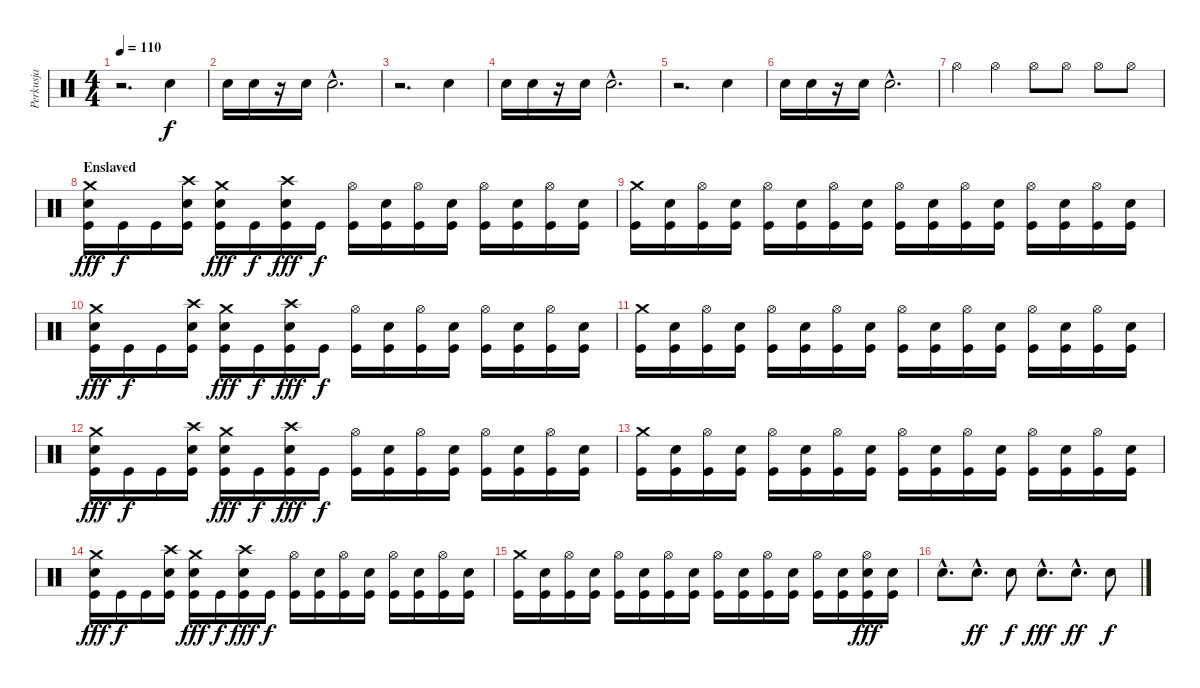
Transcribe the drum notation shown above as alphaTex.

\track ("Perkusja" "Perkusja") {instrument percussion}
\staff {score}
\articulation defaults
\ts (4 4)
\tempo 110
\clef neutral
\ks c
r.2{d dy f} "Snare (hit) 2".4 |
"Snare (hit) 2".16 "Snare (hit) 2".16 r.16 "Snare (hit) 2".16 "Snare (hit) 2"{hac}.2{d} |
r.2{d} "Snare (hit) 2".4 |
"Snare (hit) 2".16 "Snare (hit) 2".16 r.16 "Snare (hit) 2".16 "Snare (hit) 2"{hac}.2{d} |
r.2{d} "Snare (hit) 2".4 |
"Snare (hit) 2".16 "Snare (hit) 2".16 r.16 "Snare (hit) 2".16 "Snare (hit) 2"{hac}.2{d} |
"Hi-Hat (open)".4 "Hi-Hat (open)".4 "Hi-Hat (open)".8 "Hi-Hat (open)".8 "Hi-Hat (open)".8 "Hi-Hat (open)".8 |
\section ("" "Enslaved")
("Crash medium (hit)" "Snare (hit) 2" "Kick (hit)").16{dy fff} "Kick (hit)".16{dy f} "Kick (hit)".16 ("Crash high (hit)" "Snare (hit) 2" "Kick (hit)").16 ("Crash medium (hit)" "Snare (hit) 2" "Kick (hit)").16{dy fff} "Kick (hit)".16{dy f} ("Crash high (hit)" "Snare (hit) 2" "Kick (hit)").16{dy fff} "Kick (hit)".16{dy f} ("Hi-Hat (open)" "Kick (hit)").16 ("Snare (hit) 2" "Kick (hit)").16 ("Hi-Hat (open)" "Kick (hit)").16 ("Snare (hit) 2" "Kick (hit)").16 ("Hi-Hat (open)" "Kick (hit)").16 ("Snare (hit) 2" "Kick (hit)").16 ("Hi-Hat (open)" "Kick (hit)").16 ("Snare (hit) 2" "Kick (hit)").16 |
("Crash medium (hit)" "Kick (hit)").16 ("Snare (hit) 2" "Kick (hit)").16 ("Hi-Hat (open)" "Kick (hit)").16 ("Snare (hit) 2" "Kick (hit)").16 ("Hi-Hat (open)" "Kick (hit)").16 ("Snare (hit) 2" "Kick (hit)").16 ("Hi-Hat (open)" "Kick (hit)").16 ("Snare (hit) 2" "Kick (hit)").16 ("Hi-Hat (open)" "Kick (hit)").16 ("Snare (hit) 2" "Kick (hit)").16 ("Hi-Hat (open)" "Kick (hit)").16 ("Snare (hit) 2" "Kick (hit)").16 ("Hi-Hat (open)" "Kick (hit)").16 ("Snare (hit) 2" "Kick (hit)").16 ("Hi-Hat (open)" "Kick (hit)").16 ("Snare (hit) 2" "Kick (hit)").16 |
("Crash medium (hit)" "Snare (hit) 2" "Kick (hit)").16{dy fff} "Kick (hit)".16{dy f} "Kick (hit)".16 ("Crash high (hit)" "Snare (hit) 2" "Kick (hit)").16 ("Crash medium (hit)" "Snare (hit) 2" "Kick (hit)").16{dy fff} "Kick (hit)".16{dy f} ("Crash high (hit)" "Snare (hit) 2" "Kick (hit)").16{dy fff} "Kick (hit)".16{dy f} ("Hi-Hat (open)" "Kick (hit)").16 ("Snare (hit) 2" "Kick (hit)").16 ("Hi-Hat (open)" "Kick (hit)").16 ("Snare (hit) 2" "Kick (hit)").16 ("Hi-Hat (open)" "Kick (hit)").16 ("Snare (hit) 2" "Kick (hit)").16 ("Hi-Hat (open)" "Kick (hit)").16 ("Snare (hit) 2" "Kick (hit)").16 |
("Crash medium (hit)" "Kick (hit)").16 ("Snare (hit) 2" "Kick (hit)").16 ("Hi-Hat (open)" "Kick (hit)").16 ("Snare (hit) 2" "Kick (hit)").16 ("Hi-Hat (open)" "Kick (hit)").16 ("Snare (hit) 2" "Kick (hit)").16 ("Hi-Hat (open)" "Kick (hit)").16 ("Snare (hit) 2" "Kick (hit)").16 ("Hi-Hat (open)" "Kick (hit)").16 ("Snare (hit) 2" "Kick (hit)").16 ("Hi-Hat (open)" "Kick (hit)").16 ("Snare (hit) 2" "Kick (hit)").16 ("Hi-Hat (open)" "Kick (hit)").16 ("Snare (hit) 2" "Kick (hit)").16 ("Hi-Hat (open)" "Kick (hit)").16 ("Snare (hit) 2" "Kick (hit)").16 |
("Crash medium (hit)" "Snare (hit) 2" "Kick (hit)").16{dy fff} "Kick (hit)".16{dy f} "Kick (hit)".16 ("Crash high (hit)" "Snare (hit) 2" "Kick (hit)").16 ("Crash medium (hit)" "Snare (hit) 2" "Kick (hit)").16{dy fff} "Kick (hit)".16{dy f} ("Crash high (hit)" "Snare (hit) 2" "Kick (hit)").16{dy fff} "Kick (hit)".16{dy f} ("Hi-Hat (open)" "Kick (hit)").16 ("Snare (hit) 2" "Kick (hit)").16 ("Hi-Hat (open)" "Kick (hit)").16 ("Snare (hit) 2" "Kick (hit)").16 ("Hi-Hat (open)" "Kick (hit)").16 ("Snare (hit) 2" "Kick (hit)").16 ("Hi-Hat (open)" "Kick (hit)").16 ("Snare (hit) 2" "Kick (hit)").16 |
("Crash medium (hit)" "Kick (hit)").16 ("Snare (hit) 2" "Kick (hit)").16 ("Hi-Hat (open)" "Kick (hit)").16 ("Snare (hit) 2" "Kick (hit)").16 ("Hi-Hat (open)" "Kick (hit)").16 ("Snare (hit) 2" "Kick (hit)").16 ("Hi-Hat (open)" "Kick (hit)").16 ("Snare (hit) 2" "Kick (hit)").16 ("Hi-Hat (open)" "Kick (hit)").16 ("Snare (hit) 2" "Kick (hit)").16 ("Hi-Hat (open)" "Kick (hit)").16 ("Snare (hit) 2" "Kick (hit)").16 ("Hi-Hat (open)" "Kick (hit)").16 ("Snare (hit) 2" "Kick (hit)").16 ("Hi-Hat (open)" "Kick (hit)").16 ("Snare (hit) 2" "Kick (hit)").16 |
("Crash medium (hit)" "Snare (hit) 2" "Kick (hit)").16{dy fff} "Kick (hit)".16{dy f} "Kick (hit)".16 ("Crash high (hit)" "Snare (hit) 2" "Kick (hit)").16 ("Crash medium (hit)" "Snare (hit) 2" "Kick (hit)").16{dy fff} "Kick (hit)".16{dy f} ("Crash high (hit)" "Snare (hit) 2" "Kick (hit)").16{dy fff} "Kick (hit)".16{dy f} ("Hi-Hat (open)" "Kick (hit)").16 ("Snare (hit) 2" "Kick (hit)").16 ("Hi-Hat (open)" "Kick (hit)").16 ("Snare (hit) 2" "Kick (hit)").16 ("Hi-Hat (open)" "Kick (hit)").16 ("Snare (hit) 2" "Kick (hit)").16 ("Hi-Hat (open)" "Kick (hit)").16 ("Snare (hit) 2" "Kick (hit)").16 |
("Crash medium (hit)" "Kick (hit)").16 ("Snare (hit) 2" "Kick (hit)").16 ("Hi-Hat (open)" "Kick (hit)").16 ("Snare (hit) 2" "Kick (hit)").16 ("Hi-Hat (open)" "Kick (hit)").16 ("Snare (hit) 2" "Kick (hit)").16 ("Hi-Hat (open)" "Kick (hit)").16 ("Snare (hit) 2" "Kick (hit)").16 ("Hi-Hat (open)" "Kick (hit)").16 ("Snare (hit) 2" "Kick (hit)").16 ("Hi-Hat (open)" "Kick (hit)").16 ("Snare (hit) 2" "Kick (hit)").16 ("Hi-Hat (open)" "Kick (hit)").16 ("Snare (hit) 2" "Kick (hit)").16 ("Hi-Hat (open)" "Snare (hit) 2" "Kick (hit)").16{dy fff} ("Snare (hit) 2" "Kick (hit)").16 |
"Snare (hit) 2"{hac}.8{d} "Snare (hit) 2"{hac}.8{d dy ff} "Snare (hit) 2".8{dy f} "Snare (hit) 2"{hac}.8{d dy fff} "Snare (hit) 2"{hac}.8{d dy ff} "Snare (hit) 2".8{dy f}
